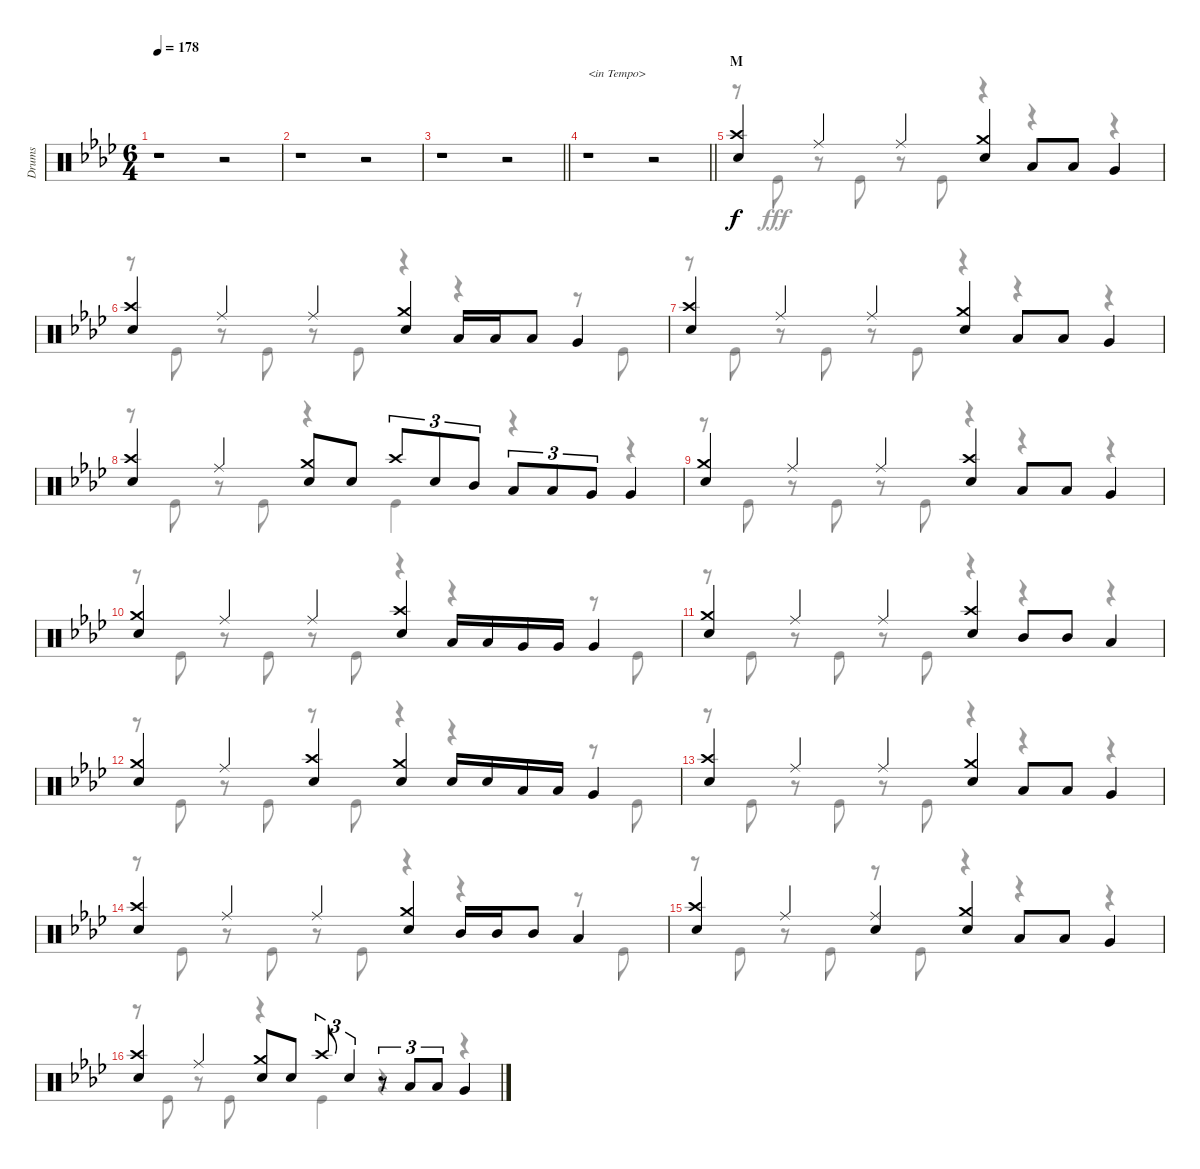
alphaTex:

\track ("Drums" "Drums") {instrument percussion}
\staff {score}
\articulation defaults
\voice
\ts (6 4)
\tempo 178
\clef neutral
\ks ab
r.1{dy f} r.2 |
r.1 r.2 |
\barLineRight lightlight
r.1 r.2 |
\barLineRight lightlight
r.1{txt "<in Tempo>"} r.2 |
\section ("" "M")
("Crash high (hit)" "Snare (hit) 2").4 "Ride (middle)".4 "Ride (middle)".4 ("Crash medium (hit)" "Snare (hit) 2").4 "Low Tom (hit)".8 "Low Tom (hit)".8 "Very Low Tom (hit)".4 |
("Crash high (hit)" "Snare (hit) 2").4 "Ride (middle)".4 "Ride (middle)".4 ("Crash medium (hit)" "Snare (hit) 2").4 "Low Tom (hit)".16 "Low Tom (hit)".16 "Low Tom (hit)".8 "Very Low Tom (hit)".4 |
("Crash high (hit)" "Snare (hit) 2").4 "Ride (middle)".4 "Ride (middle)".4 ("Crash medium (hit)" "Snare (hit) 2").4 "Low Tom (hit)".8 "Low Tom (hit)".8 "Very Low Tom (hit)".4 |
("Crash high (hit)" "Snare (hit) 2").4 "Ride (middle)".4 ("Crash medium (hit)" "Snare (hit) 2").8 "Snare (hit) 2".8 "Crash high (hit)".8{tu (3 2)} "Snare (hit) 2".8{tu (3 2)} "Mid Tom (hit)".8{tu (3 2)} "Low Tom (hit)".8{tu (3 2)} "Low Tom (hit)".8{tu (3 2)} "Very Low Tom (hit)".8{tu (3 2)} "Very Low Tom (hit)".4 |
("Crash medium (hit)" "Snare (hit) 2").4 "Ride (middle)".4 "Ride (middle)".4 ("Crash high (hit)" "Snare (hit) 2").4 "Low Tom (hit)".8 "Low Tom (hit)".8 "Very Low Tom (hit)".4 |
("Crash medium (hit)" "Snare (hit) 2").4 "Ride (middle)".4 "Ride (middle)".4 ("Crash high (hit)" "Snare (hit) 2").4 "Low Tom (hit)".16 "Low Tom (hit)".16 "Very Low Tom (hit)".16 "Very Low Tom (hit)".16 "Very Low Tom (hit)".4 |
("Crash medium (hit)" "Snare (hit) 2").4 "Ride (middle)".4 "Ride (middle)".4 ("Crash high (hit)" "Snare (hit) 2").4 "Mid Tom (hit)".8 "Mid Tom (hit)".8 "Low Tom (hit)".4 |
("Crash medium (hit)" "Snare (hit) 2").4 "Ride (middle)".4 ("Crash high (hit)" "Snare (hit) 2").4 ("Crash medium (hit)" "Snare (hit) 2").4 "Snare (hit) 2".16 "Snare (hit) 2".16 "Low Tom (hit)".16 "Low Tom (hit)".16 "Very Low Tom (hit)".4 |
("Crash high (hit)" "Snare (hit) 2").4 "Ride (middle)".4 "Ride (middle)".4 ("Crash medium (hit)" "Snare (hit) 2").4 "Low Tom (hit)".8 "Low Tom (hit)".8 "Very Low Tom (hit)".4 |
("Crash high (hit)" "Snare (hit) 2").4 "Ride (middle)".4 "Ride (middle)".4 ("Crash medium (hit)" "Snare (hit) 2").4 "Mid Tom (hit)".16 "Mid Tom (hit)".16 "Mid Tom (hit)".8 "Low Tom (hit)".4 |
("Crash high (hit)" "Snare (hit) 2").4 "Ride (middle)".4 ("Ride (middle)" "Snare (hit) 2").4 ("Crash medium (hit)" "Snare (hit) 2").4 "Low Tom (hit)".8 "Low Tom (hit)".8 "Very Low Tom (hit)".4 |
("Crash high (hit)" "Snare (hit) 2").4 "Ride (middle)".4 ("Crash medium (hit)" "Snare (hit) 2").8 "Snare (hit) 2".8 "Crash high (hit)".8{tu (3 2)} "Snare (hit) 2".4{tu (3 2)} r.8{tu (3 2)} "Low Tom (hit)".8{tu (3 2)} "Low Tom (hit)".8{tu (3 2)} "Very Low Tom (hit)".4
\voice
\clef neutral
\ottava regular
\simile none
\ks ab
r.1{dy fff} r.2 |
r.1 r.2 |
\barLineRight lightlight
r.1 r.2 |
\barLineRight lightlight
r.1 r.2 |
r.8 "Kick (hit)".8 r.8 "Kick (hit)".8 r.8 "Kick (hit)".8 r.4 r.4 r.4 |
r.8 "Kick (hit)".8 r.8 "Kick (hit)".8 r.8 "Kick (hit)".8 r.4 r.4 r.8 "Kick (hit)".8 |
r.8 "Kick (hit)".8 r.8 "Kick (hit)".8 r.8 "Kick (hit)".8 r.4 r.4 r.4 |
r.8 "Kick (hit)".8 r.8 "Kick (hit)".8 r.4 "Kick (hit)".4 r.4 r.4 |
r.8 "Kick (hit)".8 r.8 "Kick (hit)".8 r.8 "Kick (hit)".8 r.4 r.4 r.4 |
r.8 "Kick (hit)".8 r.8 "Kick (hit)".8 r.8 "Kick (hit)".8 r.4 r.4 r.8 "Kick (hit)".8 |
r.8 "Kick (hit)".8 r.8 "Kick (hit)".8 r.8 "Kick (hit)".8 r.4 r.4 r.4 |
r.8 "Kick (hit)".8 r.8 "Kick (hit)".8 r.8 "Kick (hit)".8 r.4 r.4 r.8 "Kick (hit)".8 |
r.8 "Kick (hit)".8 r.8 "Kick (hit)".8 r.8 "Kick (hit)".8 r.4 r.4 r.4 |
r.8 "Kick (hit)".8 r.8 "Kick (hit)".8 r.8 "Kick (hit)".8 r.4 r.4 r.8 "Kick (hit)".8 |
r.8 "Kick (hit)".8 r.8 "Kick (hit)".8 r.8 "Kick (hit)".8 r.4 r.4 r.4 |
r.8 "Kick (hit)".8 r.8 "Kick (hit)".8 r.4 "Kick (hit)".4 r.4 r.4
